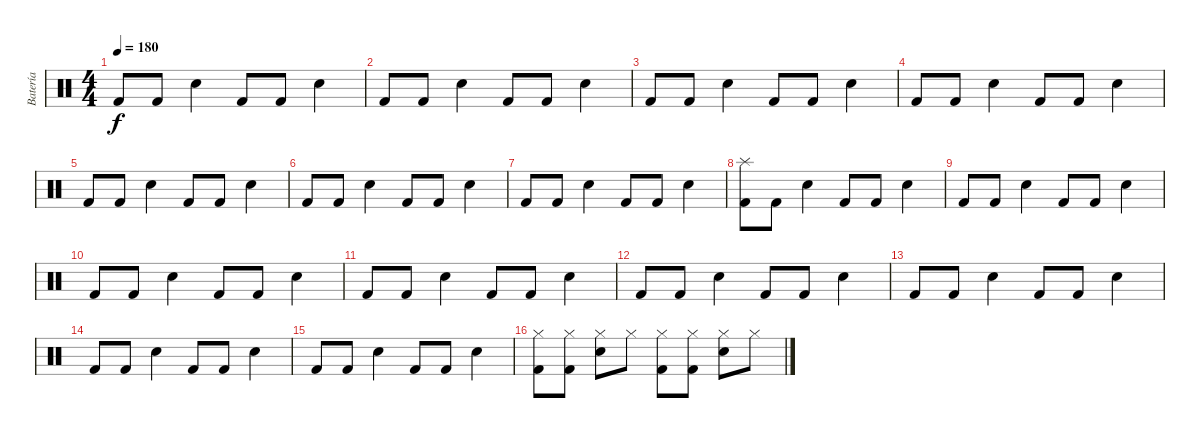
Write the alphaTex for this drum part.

\track ("Batería" "Batería") {instrument percussion}
\staff {score}
\articulation defaults
\ts (4 4)
\tempo 180
\clef neutral
\ks c "Kick (hit) 2".8{dy f} "Kick (hit) 2".8 "Snare (hit) 2".4 "Kick (hit) 2".8 "Kick (hit) 2".8 "Snare (hit) 2".4
|
"Kick (hit) 2".8 "Kick (hit) 2".8 "Snare (hit) 2".4 "Kick (hit) 2".8 "Kick (hit) 2".8 "Snare (hit) 2".4 |
"Kick (hit) 2".8 "Kick (hit) 2".8 "Snare (hit) 2".4 "Kick (hit) 2".8 "Kick (hit) 2".8 "Snare (hit) 2".4 |
"Kick (hit) 2".8 "Kick (hit) 2".8 "Snare (hit) 2".4 "Kick (hit) 2".8 "Kick (hit) 2".8 "Snare (hit) 2".4 |
"Kick (hit) 2".8 "Kick (hit) 2".8 "Snare (hit) 2".4 "Kick (hit) 2".8 "Kick (hit) 2".8 "Snare (hit) 2".4 |
"Kick (hit) 2".8 "Kick (hit) 2".8 "Snare (hit) 2".4 "Kick (hit) 2".8 "Kick (hit) 2".8 "Snare (hit) 2".4 |
"Kick (hit) 2".8 "Kick (hit) 2".8 "Snare (hit) 2".4 "Kick (hit) 2".8 "Kick (hit) 2".8 "Snare (hit) 2".4 |
("Splash (hit)" "Kick (hit) 2").8 "Kick (hit) 2".8 "Snare (hit) 2".4 "Kick (hit) 2".8 "Kick (hit) 2".8 "Snare (hit) 2".4 |
"Kick (hit) 2".8 "Kick (hit) 2".8 "Snare (hit) 2".4 "Kick (hit) 2".8 "Kick (hit) 2".8 "Snare (hit) 2".4 |
"Kick (hit) 2".8 "Kick (hit) 2".8 "Snare (hit) 2".4 "Kick (hit) 2".8 "Kick (hit) 2".8 "Snare (hit) 2".4 |
"Kick (hit) 2".8 "Kick (hit) 2".8 "Snare (hit) 2".4 "Kick (hit) 2".8 "Kick (hit) 2".8 "Snare (hit) 2".4 |
"Kick (hit) 2".8 "Kick (hit) 2".8 "Snare (hit) 2".4 "Kick (hit) 2".8 "Kick (hit) 2".8 "Snare (hit) 2".4 |
"Kick (hit) 2".8 "Kick (hit) 2".8 "Snare (hit) 2".4 "Kick (hit) 2".8 "Kick (hit) 2".8 "Snare (hit) 2".4 |
"Kick (hit) 2".8 "Kick (hit) 2".8 "Snare (hit) 2".4 "Kick (hit) 2".8 "Kick (hit) 2".8 "Snare (hit) 2".4 |
"Kick (hit) 2".8 "Kick (hit) 2".8 "Snare (hit) 2".4 "Kick (hit) 2".8 "Kick (hit) 2".8 "Snare (hit) 2".4 |
("Hi-Hat (closed)" "Kick (hit) 2").8 ("Hi-Hat (closed)" "Kick (hit) 2").8 ("Snare (hit) 2" "Hi-Hat (closed)").8 "Hi-Hat (closed)".8 ("Hi-Hat (closed)" "Kick (hit) 2").8 ("Hi-Hat (closed)" "Kick (hit) 2").8 ("Snare (hit) 2" "Hi-Hat (closed)").8 "Hi-Hat (closed)".8
